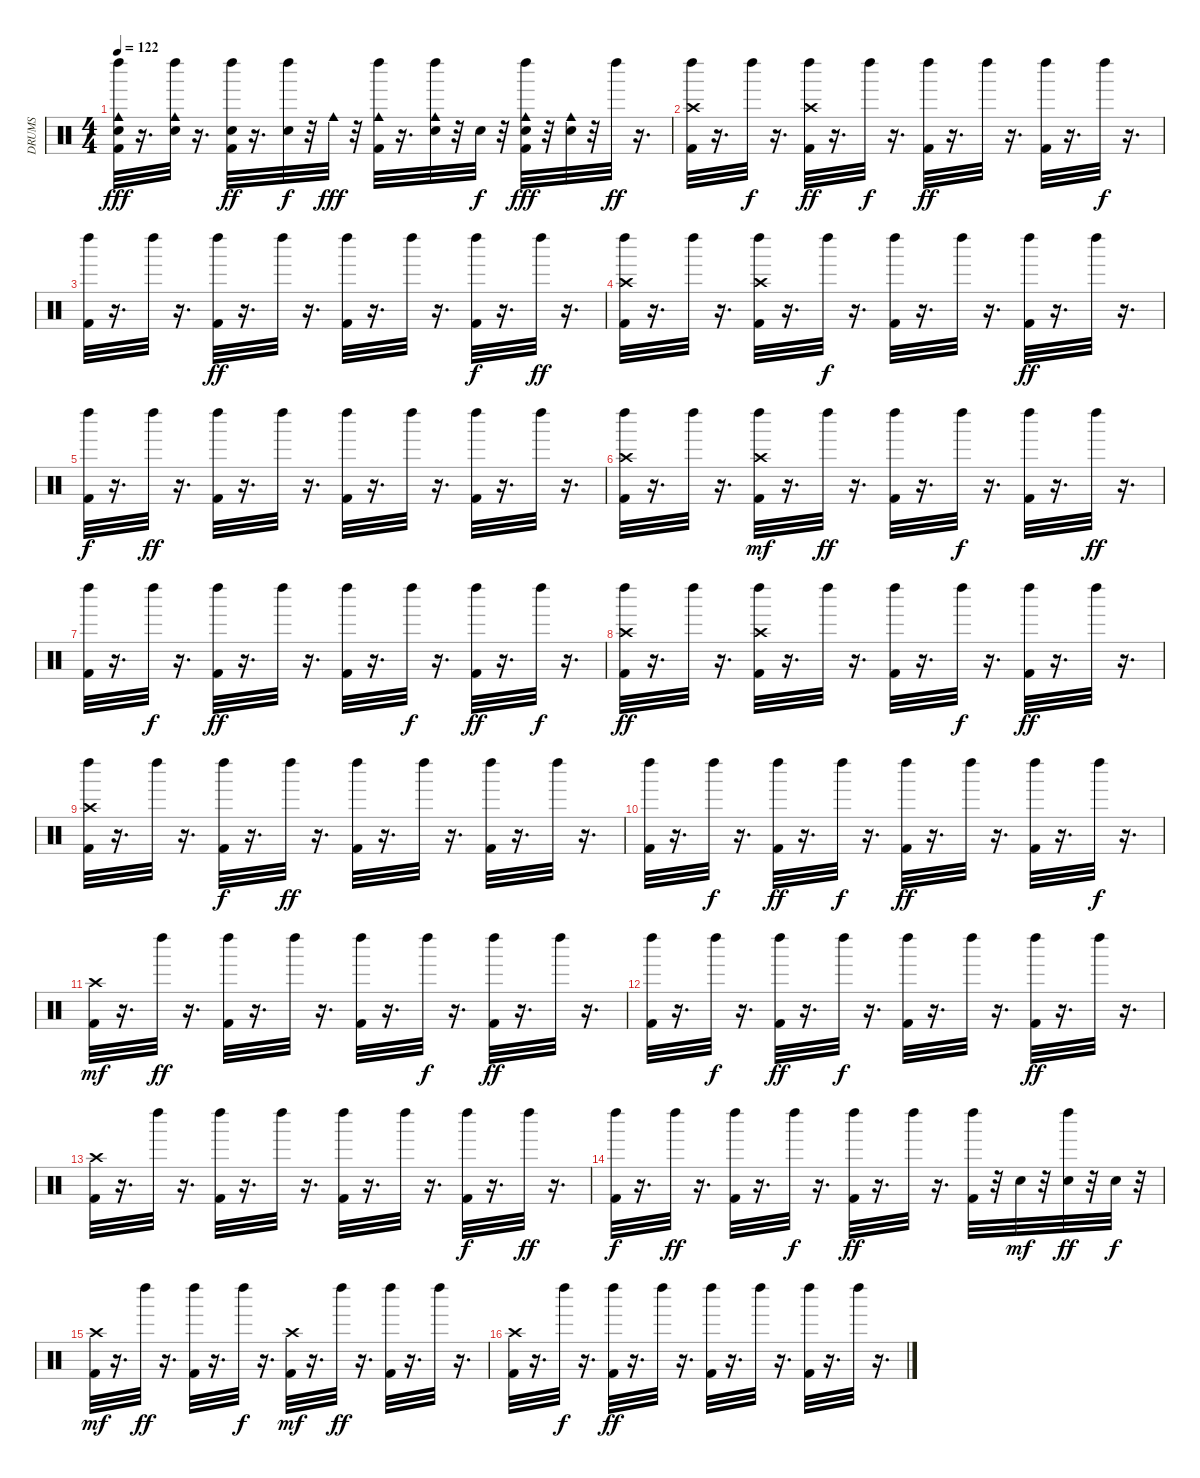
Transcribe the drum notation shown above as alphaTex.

\track ("DRUMS" "DRUMS") {instrument percussion}
\staff {score}
\articulation defaults
\ts (4 4)
\tempo 122
\clef neutral
\ks c
("Left Maraca (hit)" "Cowbell medium (hit)" "Hand Clap (hit)" "Kick (hit) 2").32{dy fff} r.16{d} ("Left Maraca (hit)" "Cowbell medium (hit)" "Hand Clap (hit)").32 r.16{d} ("Left Maraca (hit)" "Hand Clap (hit)" "Kick (hit) 2").32{dy ff} r.16{d} ("Left Maraca (hit)" "Hand Clap (hit)").32{dy f} r.32 "Cowbell medium (hit)".32{dy fff} r.32 ("Left Maraca (hit)" "Cowbell medium (hit)" "Kick (hit) 2").32 r.16{d} ("Left Maraca (hit)" "Cowbell medium (hit)" "Hand Clap (hit)").32 r.32 "Hand Clap (hit)".32{dy f} r.32 ("Left Maraca (hit)" "Cowbell medium (hit)" "Hand Clap (hit)" "Kick (hit) 2").32{dy fff} r.32 ("Cowbell medium (hit)" "Hand Clap (hit)").32 r.32 "Left Maraca (hit)".32{dy ff} r.16{d} |
("Left Maraca (hit)" "Crash high (hit)" "Kick (hit) 2").32 r.16{d} "Left Maraca (hit)".32{dy f} r.16{d} ("Left Maraca (hit)" "Crash high (hit)" "Kick (hit) 2").32{dy ff} r.16{d} "Left Maraca (hit)".32{dy f} r.16{d} ("Left Maraca (hit)" "Kick (hit) 2").32{dy ff} r.16{d} "Left Maraca (hit)".32 r.16{d} ("Left Maraca (hit)" "Kick (hit) 2").32 r.16{d} "Left Maraca (hit)".32{dy f} r.16{d} |
("Left Maraca (hit)" "Kick (hit) 2").32 r.16{d} "Left Maraca (hit)".32 r.16{d} ("Left Maraca (hit)" "Kick (hit) 2").32{dy ff} r.16{d} "Left Maraca (hit)".32 r.16{d} ("Left Maraca (hit)" "Kick (hit) 2").32 r.16{d} "Left Maraca (hit)".32 r.16{d} ("Left Maraca (hit)" "Kick (hit) 2").32{dy f} r.16{d} "Left Maraca (hit)".32{dy ff} r.16{d} |
("Left Maraca (hit)" "Crash high (hit)" "Kick (hit) 2").32 r.16{d} "Left Maraca (hit)".32 r.16{d} ("Left Maraca (hit)" "Crash high (hit)" "Kick (hit) 2").32 r.16{d} "Left Maraca (hit)".32{dy f} r.16{d} ("Left Maraca (hit)" "Kick (hit) 2").32 r.16{d} "Left Maraca (hit)".32 r.16{d} ("Left Maraca (hit)" "Kick (hit) 2").32{dy ff} r.16{d} "Left Maraca (hit)".32 r.16{d} |
("Left Maraca (hit)" "Kick (hit) 2").32{dy f} r.16{d} "Left Maraca (hit)".32{dy ff} r.16{d} ("Left Maraca (hit)" "Kick (hit) 2").32 r.16{d} "Left Maraca (hit)".32 r.16{d} ("Left Maraca (hit)" "Kick (hit) 2").32 r.16{d} "Left Maraca (hit)".32 r.16{d} ("Left Maraca (hit)" "Kick (hit) 2").32 r.16{d} "Left Maraca (hit)".32 r.16{d} |
("Left Maraca (hit)" "Crash high (hit)" "Kick (hit) 2").32 r.16{d} "Left Maraca (hit)".32 r.16{d} ("Left Maraca (hit)" "Crash high (hit)" "Kick (hit) 2").32{dy mf} r.16{d} "Left Maraca (hit)".32{dy ff} r.16{d} ("Left Maraca (hit)" "Kick (hit) 2").32 r.16{d} "Left Maraca (hit)".32{dy f} r.16{d} ("Left Maraca (hit)" "Kick (hit) 2").32 r.16{d} "Left Maraca (hit)".32{dy ff} r.16{d} |
("Left Maraca (hit)" "Kick (hit) 2").32 r.16{d} "Left Maraca (hit)".32{dy f} r.16{d} ("Left Maraca (hit)" "Kick (hit) 2").32{dy ff} r.16{d} "Left Maraca (hit)".32 r.16{d} ("Left Maraca (hit)" "Kick (hit) 2").32 r.16{d} "Left Maraca (hit)".32{dy f} r.16{d} ("Left Maraca (hit)" "Kick (hit) 2").32{dy ff} r.16{d} "Left Maraca (hit)".32{dy f} r.16{d} |
("Left Maraca (hit)" "Crash high (hit)" "Kick (hit) 2").32{dy ff} r.16{d} "Left Maraca (hit)".32 r.16{d} ("Left Maraca (hit)" "Crash high (hit)" "Kick (hit) 2").32 r.16{d} "Left Maraca (hit)".32 r.16{d} ("Left Maraca (hit)" "Kick (hit) 2").32 r.16{d} "Left Maraca (hit)".32{dy f} r.16{d} ("Left Maraca (hit)" "Kick (hit) 2").32{dy ff} r.16{d} "Left Maraca (hit)".32 r.16{d} |
("Left Maraca (hit)" "Crash high (hit)" "Kick (hit) 2").32 r.16{d} "Left Maraca (hit)".32 r.16{d} ("Left Maraca (hit)" "Kick (hit) 2").32{dy f} r.16{d} "Left Maraca (hit)".32{dy ff} r.16{d} ("Left Maraca (hit)" "Kick (hit) 2").32 r.16{d} "Left Maraca (hit)".32 r.16{d} ("Left Maraca (hit)" "Kick (hit) 2").32 r.16{d} "Left Maraca (hit)".32 r.16{d} |
("Left Maraca (hit)" "Kick (hit) 2").32 r.16{d} "Left Maraca (hit)".32{dy f} r.16{d} ("Left Maraca (hit)" "Kick (hit) 2").32{dy ff} r.16{d} "Left Maraca (hit)".32{dy f} r.16{d} ("Left Maraca (hit)" "Kick (hit) 2").32{dy ff} r.16{d} "Left Maraca (hit)".32 r.16{d} ("Left Maraca (hit)" "Kick (hit) 2").32 r.16{d} "Left Maraca (hit)".32{dy f} r.16{d} |
("Crash high (hit)" "Kick (hit) 2").32{dy mf} r.16{d} "Left Maraca (hit)".32{dy ff} r.16{d} ("Left Maraca (hit)" "Kick (hit) 2").32 r.16{d} "Left Maraca (hit)".32 r.16{d} ("Left Maraca (hit)" "Kick (hit) 2").32 r.16{d} "Left Maraca (hit)".32{dy f} r.16{d} ("Left Maraca (hit)" "Kick (hit) 2").32{dy ff} r.16{d} "Left Maraca (hit)".32 r.16{d} |
("Left Maraca (hit)" "Kick (hit) 2").32 r.16{d} "Left Maraca (hit)".32{dy f} r.16{d} ("Left Maraca (hit)" "Kick (hit) 2").32{dy ff} r.16{d} "Left Maraca (hit)".32{dy f} r.16{d} ("Left Maraca (hit)" "Kick (hit) 2").32 r.16{d} "Left Maraca (hit)".32 r.16{d} ("Left Maraca (hit)" "Kick (hit) 2").32{dy ff} r.16{d} "Left Maraca (hit)".32 r.16{d} |
("Crash high (hit)" "Kick (hit) 2").32 r.16{d} "Left Maraca (hit)".32 r.16{d} ("Left Maraca (hit)" "Kick (hit) 2").32 r.16{d} "Left Maraca (hit)".32 r.16{d} ("Left Maraca (hit)" "Kick (hit) 2").32 r.16{d} "Left Maraca (hit)".32 r.16{d} ("Left Maraca (hit)" "Kick (hit) 2").32{dy f} r.16{d} "Left Maraca (hit)".32{dy ff} r.16{d} |
("Left Maraca (hit)" "Kick (hit) 2").32{dy f} r.16{d} "Left Maraca (hit)".32{dy ff} r.16{d} ("Left Maraca (hit)" "Kick (hit) 2").32 r.16{d} "Left Maraca (hit)".32{dy f} r.16{d} ("Left Maraca (hit)" "Kick (hit) 2").32{dy ff} r.16{d} "Left Maraca (hit)".32 r.16{d} ("Left Maraca (hit)" "Kick (hit) 2").32 r.32 "Snare (hit) 2".32{dy mf} r.32 ("Left Maraca (hit)" "Snare (hit) 2").32{dy ff} r.32 "Snare (hit) 2".32{dy f} r.32 |
("Crash high (hit)" "Kick (hit) 2").32{dy mf} r.16{d} "Left Maraca (hit)".32{dy ff} r.16{d} ("Left Maraca (hit)" "Kick (hit) 2").32 r.16{d} "Left Maraca (hit)".32{dy f} r.16{d} ("Crash high (hit)" "Kick (hit) 2").32{dy mf} r.16{d} "Left Maraca (hit)".32{dy ff} r.16{d} ("Left Maraca (hit)" "Kick (hit) 2").32 r.16{d} "Left Maraca (hit)".32 r.16{d} |
("Crash high (hit)" "Kick (hit) 2").32 r.16{d} "Left Maraca (hit)".32{dy f} r.16{d} ("Left Maraca (hit)" "Kick (hit) 2").32{dy ff} r.16{d} "Left Maraca (hit)".32 r.16{d} ("Left Maraca (hit)" "Kick (hit) 2").32 r.16{d} "Left Maraca (hit)".32 r.16{d} ("Left Maraca (hit)" "Kick (hit) 2").32 r.16{d} "Left Maraca (hit)".32 r.16{d}
